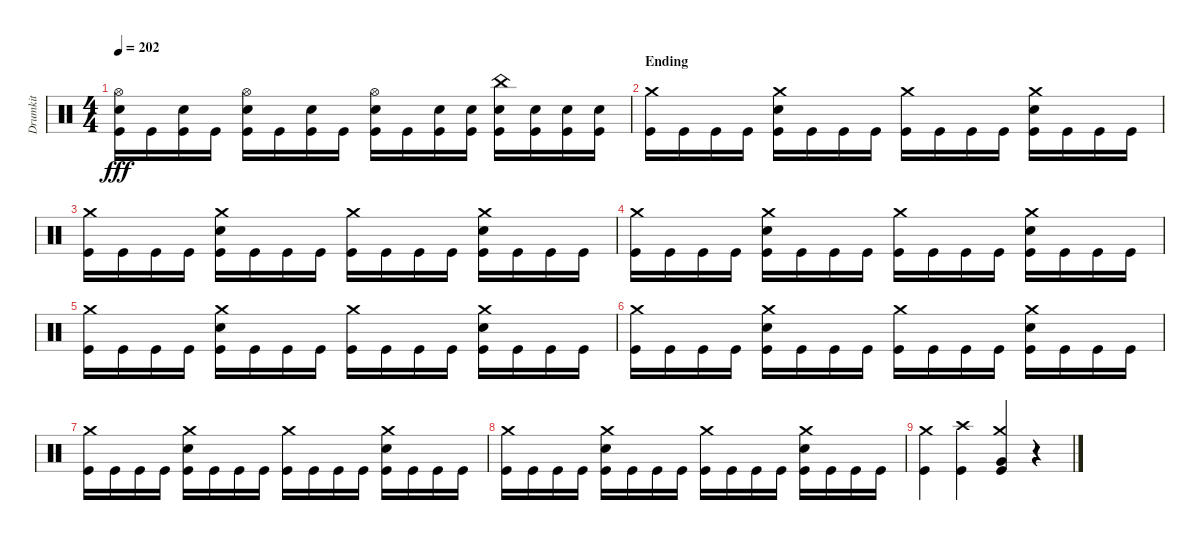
\track ("Drumkit" "Drumkit") {instrument percussion}
\staff {score}
\articulation defaults
\ts (4 4)
\tempo 202
\clef neutral
\ks c
("Hi-Hat (open)" "Snare (hit) 2" "Kick (hit)").16{dy fff} "Kick (hit)".16 ("Snare (hit) 2" "Kick (hit)").16 "Kick (hit)".16 ("Hi-Hat (open)" "Snare (hit) 2" "Kick (hit)").16 "Kick (hit)".16 ("Snare (hit) 2" "Kick (hit)").16 "Kick (hit)".16 ("Snare (hit) 2" "Hi-Hat (open)" "Kick (hit)").16 "Kick (hit)".16 ("Snare (hit) 2" "Kick (hit)").16 ("Snare (hit) 2" "Kick (hit)").16 ("China (hit)" "Snare (hit) 2" "Kick (hit)").16 ("Snare (hit) 2" "Kick (hit)").16 ("Snare (hit) 2" "Kick (hit)").16 ("Snare (hit) 2" "Kick (hit)").16 |
\section ("" "Ending")
("Crash medium (hit)" "Kick (hit)").16 "Kick (hit)".16 "Kick (hit)".16 "Kick (hit)".16 ("Crash medium (hit)" "Snare (hit) 2" "Kick (hit)").16 "Kick (hit)".16 "Kick (hit)".16 "Kick (hit)".16 ("Crash medium (hit)" "Kick (hit)").16 "Kick (hit)".16 "Kick (hit)".16 "Kick (hit)".16 ("Crash medium (hit)" "Snare (hit) 2" "Kick (hit)").16 "Kick (hit)".16 "Kick (hit)".16 "Kick (hit)".16 |
("Crash medium (hit)" "Kick (hit)").16 "Kick (hit)".16 "Kick (hit)".16 "Kick (hit)".16 ("Crash medium (hit)" "Snare (hit) 2" "Kick (hit)").16 "Kick (hit)".16 "Kick (hit)".16 "Kick (hit)".16 ("Crash medium (hit)" "Kick (hit)").16 "Kick (hit)".16 "Kick (hit)".16 "Kick (hit)".16 ("Crash medium (hit)" "Snare (hit) 2" "Kick (hit)").16 "Kick (hit)".16 "Kick (hit)".16 "Kick (hit)".16 |
("Crash medium (hit)" "Kick (hit)").16 "Kick (hit)".16 "Kick (hit)".16 "Kick (hit)".16 ("Crash medium (hit)" "Snare (hit) 2" "Kick (hit)").16 "Kick (hit)".16 "Kick (hit)".16 "Kick (hit)".16 ("Crash medium (hit)" "Kick (hit)").16 "Kick (hit)".16 "Kick (hit)".16 "Kick (hit)".16 ("Crash medium (hit)" "Snare (hit) 2" "Kick (hit)").16 "Kick (hit)".16 "Kick (hit)".16 "Kick (hit)".16 |
("Crash medium (hit)" "Kick (hit)").16 "Kick (hit)".16 "Kick (hit)".16 "Kick (hit)".16 ("Crash medium (hit)" "Snare (hit) 2" "Kick (hit)").16 "Kick (hit)".16 "Kick (hit)".16 "Kick (hit)".16 ("Crash medium (hit)" "Kick (hit)").16 "Kick (hit)".16 "Kick (hit)".16 "Kick (hit)".16 ("Crash medium (hit)" "Snare (hit) 2" "Kick (hit)").16 "Kick (hit)".16 "Kick (hit)".16 "Kick (hit)".16 |
("Crash medium (hit)" "Kick (hit)").16 "Kick (hit)".16 "Kick (hit)".16 "Kick (hit)".16 ("Crash medium (hit)" "Snare (hit) 2" "Kick (hit)").16 "Kick (hit)".16 "Kick (hit)".16 "Kick (hit)".16 ("Crash medium (hit)" "Kick (hit)").16 "Kick (hit)".16 "Kick (hit)".16 "Kick (hit)".16 ("Crash medium (hit)" "Snare (hit) 2" "Kick (hit)").16 "Kick (hit)".16 "Kick (hit)".16 "Kick (hit)".16 |
("Crash medium (hit)" "Kick (hit)").16 "Kick (hit)".16 "Kick (hit)".16 "Kick (hit)".16 ("Crash medium (hit)" "Snare (hit) 2" "Kick (hit)").16 "Kick (hit)".16 "Kick (hit)".16 "Kick (hit)".16 ("Crash medium (hit)" "Kick (hit)").16 "Kick (hit)".16 "Kick (hit)".16 "Kick (hit)".16 ("Crash medium (hit)" "Snare (hit) 2" "Kick (hit)").16 "Kick (hit)".16 "Kick (hit)".16 "Kick (hit)".16 |
("Crash medium (hit)" "Kick (hit)").16 "Kick (hit)".16 "Kick (hit)".16 "Kick (hit)".16 ("Crash medium (hit)" "Snare (hit) 2" "Kick (hit)").16 "Kick (hit)".16 "Kick (hit)".16 "Kick (hit)".16 ("Crash medium (hit)" "Kick (hit)").16 "Kick (hit)".16 "Kick (hit)".16 "Kick (hit)".16 ("Crash medium (hit)" "Snare (hit) 2" "Kick (hit)").16 "Kick (hit)".16 "Kick (hit)".16 "Kick (hit)".16 |
("Crash medium (hit)" "Kick (hit)").4 ("Crash high (hit)" "Kick (hit)").4 ("Crash medium (hit)" "Very Low Tom (hit)" "Kick (hit)").4 r.4
